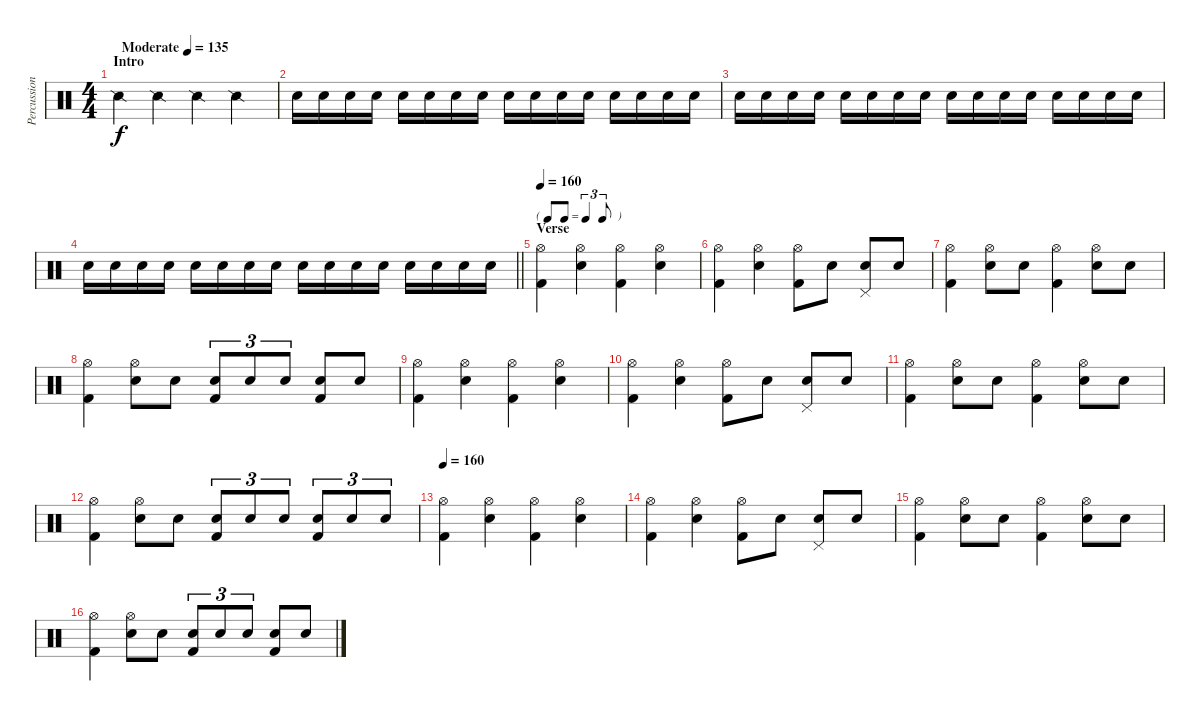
\track ("Percussion" "Percussion") {instrument percussion}
\staff {score}
\articulation defaults
\ts (4 4)
\section ("" "Intro")
\tempo (135 "Moderate")
\clef neutral
\ks c "Snare (side stick) 2".4{dy f} "Snare (side stick) 2".4 "Snare (side stick) 2".4 "Snare (side stick) 2".4
|
"Snare (hit) 2".16 "Snare (hit) 2".16 "Snare (hit) 2".16 "Snare (hit) 2".16 "Snare (hit) 2".16 "Snare (hit) 2".16 "Snare (hit) 2".16 "Snare (hit) 2".16 "Snare (hit) 2".16 "Snare (hit) 2".16 "Snare (hit) 2".16 "Snare (hit) 2".16 "Snare (hit) 2".16 "Snare (hit) 2".16 "Snare (hit) 2".16 "Snare (hit) 2".16 |
"Snare (hit) 2".16 "Snare (hit) 2".16 "Snare (hit) 2".16 "Snare (hit) 2".16 "Snare (hit) 2".16 "Snare (hit) 2".16 "Snare (hit) 2".16 "Snare (hit) 2".16 "Snare (hit) 2".16 "Snare (hit) 2".16 "Snare (hit) 2".16 "Snare (hit) 2".16 "Snare (hit) 2".16 "Snare (hit) 2".16 "Snare (hit) 2".16 "Snare (hit) 2".16 |
\barLineRight lightlight "Snare (hit) 2".16 "Snare (hit) 2".16 "Snare (hit) 2".16 "Snare (hit) 2".16 "Snare (hit) 2".16 "Snare (hit) 2".16 "Snare (hit) 2".16 "Snare (hit) 2".16 "Snare (hit) 2".16 "Snare (hit) 2".16 "Snare (hit) 2".16 "Snare (hit) 2".16 "Snare (hit) 2".16 "Snare (hit) 2".16 "Snare (hit) 2".16 "Snare (hit) 2".16
|
\tf triplet8th
\section ("" "Verse")
\tempo 160
("Hi-Hat (open)" "Kick (hit) 2").4 ("Hi-Hat (open)" "Snare (hit) 2").4 ("Hi-Hat (open)" "Kick (hit) 2").4 ("Hi-Hat (open)" "Snare (hit) 2").4 |
("Hi-Hat (open)" "Kick (hit) 2").4 ("Hi-Hat (open)" "Snare (hit) 2").4 ("Hi-Hat (open)" "Kick (hit) 2").8 "Snare (hit) 2".8 ("Snare (hit) 2" "Pedal Hi-Hat (hit)").8 "Snare (hit) 2".8 |
("Hi-Hat (open)" "Kick (hit) 2").4 ("Hi-Hat (open)" "Snare (hit) 2").8 "Snare (hit) 2".8 ("Hi-Hat (open)" "Kick (hit) 2").4 ("Hi-Hat (open)" "Snare (hit) 2").8 "Snare (hit) 2".8 |
("Hi-Hat (open)" "Kick (hit) 2").4 ("Hi-Hat (open)" "Snare (hit) 2").8 "Snare (hit) 2".8 ("Snare (hit) 2" "Kick (hit) 2").8{tu (3 2)} "Snare (hit) 2".8{tu (3 2)} "Snare (hit) 2".8{tu (3 2)} ("Snare (hit) 2" "Kick (hit) 2").8 "Snare (hit) 2".8 |
("Hi-Hat (open)" "Kick (hit) 2").4 ("Hi-Hat (open)" "Snare (hit) 2").4 ("Hi-Hat (open)" "Kick (hit) 2").4 ("Hi-Hat (open)" "Snare (hit) 2").4 |
("Hi-Hat (open)" "Kick (hit) 2").4 ("Hi-Hat (open)" "Snare (hit) 2").4 ("Hi-Hat (open)" "Kick (hit) 2").8 "Snare (hit) 2".8 ("Snare (hit) 2" "Pedal Hi-Hat (hit)").8 "Snare (hit) 2".8 |
("Hi-Hat (open)" "Kick (hit) 2").4 ("Hi-Hat (open)" "Snare (hit) 2").8 "Snare (hit) 2".8 ("Hi-Hat (open)" "Kick (hit) 2").4 ("Hi-Hat (open)" "Snare (hit) 2").8 "Snare (hit) 2".8 |
("Hi-Hat (open)" "Kick (hit) 2").4 ("Hi-Hat (open)" "Snare (hit) 2").8 "Snare (hit) 2".8 ("Snare (hit) 2" "Kick (hit) 2").8{tu (3 2)} "Snare (hit) 2".8{tu (3 2)} "Snare (hit) 2".8{tu (3 2)} ("Snare (hit) 2" "Kick (hit) 2").8{tu (3 2)} "Snare (hit) 2".8{tu (3 2)} "Snare (hit) 2".8{tu (3 2)} |
\tempo 160
("Hi-Hat (open)" "Kick (hit) 2").4 ("Hi-Hat (open)" "Snare (hit) 2").4 ("Hi-Hat (open)" "Kick (hit) 2").4 ("Hi-Hat (open)" "Snare (hit) 2").4 |
("Hi-Hat (open)" "Kick (hit) 2").4 ("Hi-Hat (open)" "Snare (hit) 2").4 ("Hi-Hat (open)" "Kick (hit) 2").8 "Snare (hit) 2".8 ("Snare (hit) 2" "Pedal Hi-Hat (hit)").8 "Snare (hit) 2".8 |
("Hi-Hat (open)" "Kick (hit) 2").4 ("Hi-Hat (open)" "Snare (hit) 2").8 "Snare (hit) 2".8 ("Hi-Hat (open)" "Kick (hit) 2").4 ("Hi-Hat (open)" "Snare (hit) 2").8 "Snare (hit) 2".8 |
("Hi-Hat (open)" "Kick (hit) 2").4 ("Hi-Hat (open)" "Snare (hit) 2").8 "Snare (hit) 2".8 ("Snare (hit) 2" "Kick (hit) 2").8{tu (3 2)} "Snare (hit) 2".8{tu (3 2)} "Snare (hit) 2".8{tu (3 2)} ("Snare (hit) 2" "Kick (hit) 2").8 "Snare (hit) 2".8
